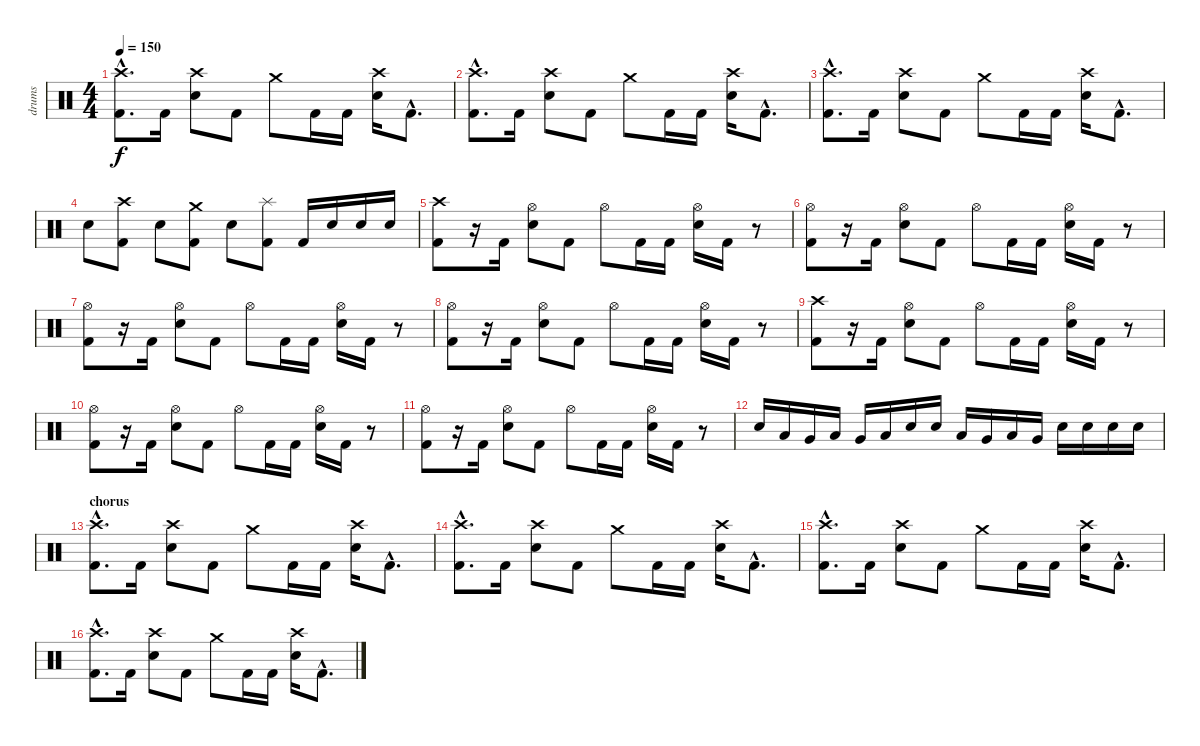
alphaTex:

\track ("drums" "drums") {instrument percussion}
\staff {score}
\articulation defaults
\ts (4 4)
\tempo 150
\clef neutral
\ks c
("Crash high (hit)"{hac} "Kick (hit) 2"{hac}).8{d dy f} "Kick (hit) 2".16 ("Crash high (hit)" "Electric Snare (hit)").8 "Kick (hit) 2".8 "Crash medium (hit)".8 "Kick (hit) 2".16 "Kick (hit) 2".16 ("Crash high (hit)" "Electric Snare (hit)").16 "Kick (hit) 2"{hac}.8{d} |
("Crash high (hit)"{hac} "Kick (hit) 2"{hac}).8{d} "Kick (hit) 2".16 ("Crash high (hit)" "Electric Snare (hit)").8 "Kick (hit) 2".8 "Crash medium (hit)".8 "Kick (hit) 2".16 "Kick (hit) 2".16 ("Crash high (hit)" "Electric Snare (hit)").16 "Kick (hit) 2"{hac}.8{d} |
("Crash high (hit)"{hac} "Kick (hit) 2"{hac}).8{d} "Kick (hit) 2".16 ("Crash high (hit)" "Electric Snare (hit)").8 "Kick (hit) 2".8 "Crash medium (hit)".8 "Kick (hit) 2".16 "Kick (hit) 2".16 ("Crash high (hit)" "Electric Snare (hit)").16 "Kick (hit) 2"{hac}.8{d} |
"Electric Snare (hit)".8 ("Crash high (hit)" "Kick (hit) 2").8 "Electric Snare (hit)".8 ("Crash medium (hit)" "Kick (hit) 2").8 "Electric Snare (hit)".8 ("Splash (hit)" "Kick (hit) 2").8 "Kick (hit) 2".16 "Electric Snare (hit)".16 "Electric Snare (hit)".16 "Electric Snare (hit)".16 |
("Crash high (hit)" "Kick (hit) 2").8 r.16 "Kick (hit) 2".16 ("Hi-Hat (open)" "Electric Snare (hit)").8 "Kick (hit) 2".8 "Hi-Hat (open)".8 "Kick (hit) 2".16 "Kick (hit) 2".16 ("Hi-Hat (open)" "Electric Snare (hit)").16 "Kick (hit) 2".16 r.8 |
("Hi-Hat (open)" "Kick (hit) 2").8 r.16 "Kick (hit) 2".16 ("Hi-Hat (open)" "Electric Snare (hit)").8 "Kick (hit) 2".8 "Hi-Hat (open)".8 "Kick (hit) 2".16 "Kick (hit) 2".16 ("Hi-Hat (open)" "Electric Snare (hit)").16 "Kick (hit) 2".16 r.8 |
("Hi-Hat (open)" "Kick (hit) 2").8 r.16 "Kick (hit) 2".16 ("Hi-Hat (open)" "Electric Snare (hit)").8 "Kick (hit) 2".8 "Hi-Hat (open)".8 "Kick (hit) 2".16 "Kick (hit) 2".16 ("Hi-Hat (open)" "Electric Snare (hit)").16 "Kick (hit) 2".16 r.8 |
("Hi-Hat (open)" "Kick (hit) 2").8 r.16 "Kick (hit) 2".16 ("Hi-Hat (open)" "Electric Snare (hit)").8 "Kick (hit) 2".8 "Hi-Hat (open)".8 "Kick (hit) 2".16 "Kick (hit) 2".16 ("Hi-Hat (open)" "Electric Snare (hit)").16 "Kick (hit) 2".16 r.8 |
("Crash high (hit)" "Kick (hit) 2").8 r.16 "Kick (hit) 2".16 ("Hi-Hat (open)" "Electric Snare (hit)").8 "Kick (hit) 2".8 "Hi-Hat (open)".8 "Kick (hit) 2".16 "Kick (hit) 2".16 ("Hi-Hat (open)" "Electric Snare (hit)").16 "Kick (hit) 2".16 r.8 |
("Hi-Hat (open)" "Kick (hit) 2").8 r.16 "Kick (hit) 2".16 ("Hi-Hat (open)" "Electric Snare (hit)").8 "Kick (hit) 2".8 "Hi-Hat (open)".8 "Kick (hit) 2".16 "Kick (hit) 2".16 ("Hi-Hat (open)" "Electric Snare (hit)").16 "Kick (hit) 2".16 r.8 |
("Hi-Hat (open)" "Kick (hit) 2").8 r.16 "Kick (hit) 2".16 ("Hi-Hat (open)" "Electric Snare (hit)").8 "Kick (hit) 2".8 "Hi-Hat (open)".8 "Kick (hit) 2".16 "Kick (hit) 2".16 ("Hi-Hat (open)" "Electric Snare (hit)").16 "Kick (hit) 2".16 r.8 |
"Electric Snare (hit)".16 "Low Tom (hit)".16 "Very Low Tom (hit)".16 "Low Tom (hit)".16 "Very Low Tom (hit)".16 "Low Tom (hit)".16 "Electric Snare (hit)".16 "Electric Snare (hit)".16 "Low Tom (hit)".16 "Very Low Tom (hit)".16 "Low Tom (hit)".16 "Very Low Tom (hit)".16 "Electric Snare (hit)".16 "Electric Snare (hit)".16 "Electric Snare (hit)".16 "Electric Snare (hit)".16 |
\section ("" "chorus")
("Crash high (hit)"{hac} "Kick (hit) 2"{hac}).8{d} "Kick (hit) 2".16 ("Crash high (hit)" "Electric Snare (hit)").8 "Kick (hit) 2".8 "Crash medium (hit)".8 "Kick (hit) 2".16 "Kick (hit) 2".16 ("Crash high (hit)" "Electric Snare (hit)").16 "Kick (hit) 2"{hac}.8{d} |
("Crash high (hit)"{hac} "Kick (hit) 2"{hac}).8{d} "Kick (hit) 2".16 ("Crash high (hit)" "Electric Snare (hit)").8 "Kick (hit) 2".8 "Crash medium (hit)".8 "Kick (hit) 2".16 "Kick (hit) 2".16 ("Crash high (hit)" "Electric Snare (hit)").16 "Kick (hit) 2"{hac}.8{d} |
("Crash high (hit)"{hac} "Kick (hit) 2"{hac}).8{d} "Kick (hit) 2".16 ("Crash high (hit)" "Electric Snare (hit)").8 "Kick (hit) 2".8 "Crash medium (hit)".8 "Kick (hit) 2".16 "Kick (hit) 2".16 ("Crash high (hit)" "Electric Snare (hit)").16 "Kick (hit) 2"{hac}.8{d} |
("Crash high (hit)"{hac} "Kick (hit) 2"{hac}).8{d} "Kick (hit) 2".16 ("Crash high (hit)" "Electric Snare (hit)").8 "Kick (hit) 2".8 "Crash medium (hit)".8 "Kick (hit) 2".16 "Kick (hit) 2".16 ("Crash high (hit)" "Electric Snare (hit)").16 "Kick (hit) 2"{hac}.8{d}
